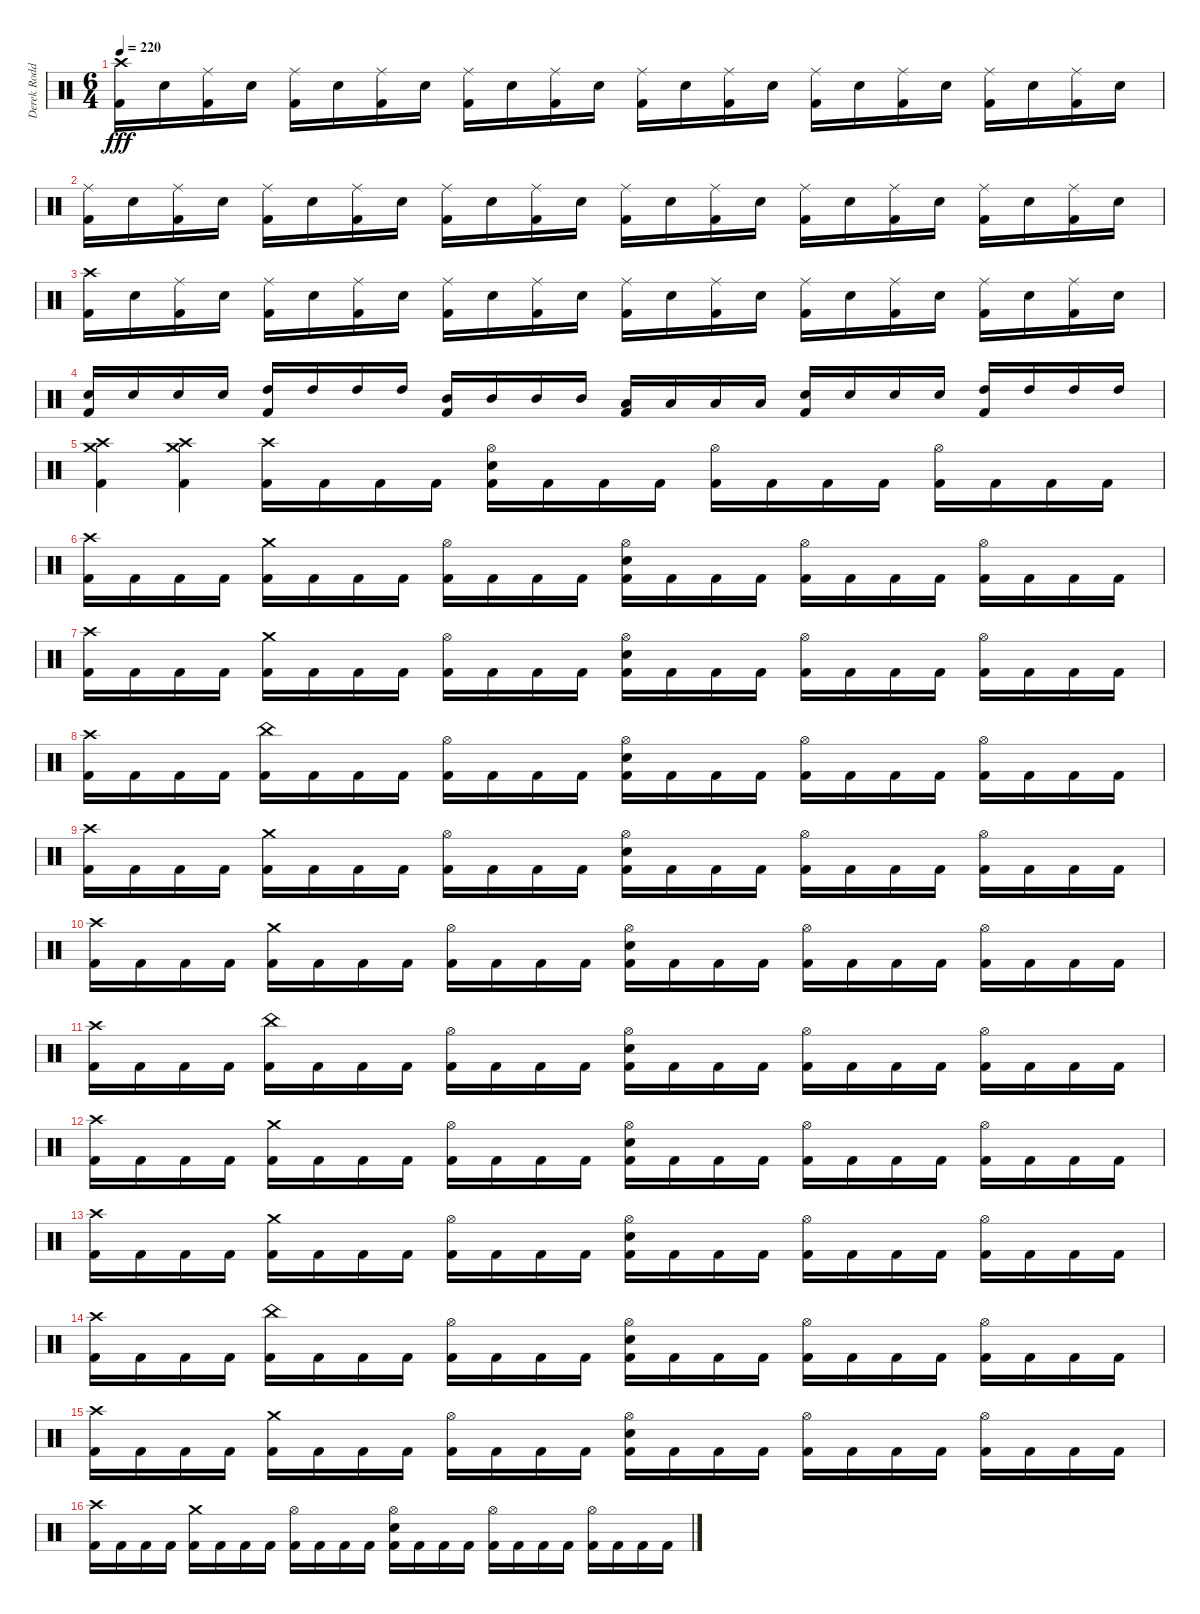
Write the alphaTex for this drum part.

\track ("Derek Roddy" "Derek Rodd") {instrument percussion}
\staff {score}
\articulation defaults
\ts (6 4)
\tempo 220
\clef neutral
\ks c
("Crash high (hit)" "Kick (hit) 2").16{dy fff} "Snare (hit) 2".16 ("Ride (middle)" "Kick (hit) 2").16 "Snare (hit) 2".16 ("Ride (middle)" "Kick (hit) 2").16 "Snare (hit) 2".16 ("Ride (middle)" "Kick (hit) 2").16 "Snare (hit) 2".16 ("Ride (middle)" "Kick (hit) 2").16 "Snare (hit) 2".16 ("Ride (middle)" "Kick (hit) 2").16 "Snare (hit) 2".16 ("Ride (middle)" "Kick (hit) 2").16 "Snare (hit) 2".16 ("Ride (middle)" "Kick (hit) 2").16 "Snare (hit) 2".16 ("Ride (middle)" "Kick (hit) 2").16 "Snare (hit) 2".16 ("Ride (middle)" "Kick (hit) 2").16 "Snare (hit) 2".16 ("Ride (middle)" "Kick (hit) 2").16 "Snare (hit) 2".16 ("Ride (middle)" "Kick (hit) 2").16 "Snare (hit) 2".16 |
("Ride (middle)" "Kick (hit) 2").16 "Snare (hit) 2".16 ("Ride (middle)" "Kick (hit) 2").16 "Snare (hit) 2".16 ("Ride (middle)" "Kick (hit) 2").16 "Snare (hit) 2".16 ("Ride (middle)" "Kick (hit) 2").16 "Snare (hit) 2".16 ("Ride (middle)" "Kick (hit) 2").16 "Snare (hit) 2".16 ("Ride (middle)" "Kick (hit) 2").16 "Snare (hit) 2".16 ("Ride (middle)" "Kick (hit) 2").16 "Snare (hit) 2".16 ("Ride (middle)" "Kick (hit) 2").16 "Snare (hit) 2".16 ("Ride (middle)" "Kick (hit) 2").16 "Snare (hit) 2".16 ("Ride (middle)" "Kick (hit) 2").16 "Snare (hit) 2".16 ("Ride (middle)" "Kick (hit) 2").16 "Snare (hit) 2".16 ("Ride (middle)" "Kick (hit) 2").16 "Snare (hit) 2".16 |
("Crash high (hit)" "Kick (hit) 2").16 "Snare (hit) 2".16 ("Ride (middle)" "Kick (hit) 2").16 "Snare (hit) 2".16 ("Ride (middle)" "Kick (hit) 2").16 "Snare (hit) 2".16 ("Ride (middle)" "Kick (hit) 2").16 "Snare (hit) 2".16 ("Ride (middle)" "Kick (hit) 2").16 "Snare (hit) 2".16 ("Ride (middle)" "Kick (hit) 2").16 "Snare (hit) 2".16 ("Ride (middle)" "Kick (hit) 2").16 "Snare (hit) 2".16 ("Ride (middle)" "Kick (hit) 2").16 "Snare (hit) 2".16 ("Ride (middle)" "Kick (hit) 2").16 "Snare (hit) 2".16 ("Ride (middle)" "Kick (hit) 2").16 "Snare (hit) 2".16 ("Ride (middle)" "Kick (hit) 2").16 "Snare (hit) 2".16 ("Ride (middle)" "Kick (hit) 2").16 "Snare (hit) 2".16 |
("Snare (hit) 2" "Kick (hit) 2").16 "Snare (hit) 2".16 "Snare (hit) 2".16 "Snare (hit) 2".16 ("High Tom (hit)" "Kick (hit) 2").16 "High Tom (hit)".16 "High Tom (hit)".16 "High Tom (hit)".16 ("Mid Tom (hit)" "Kick (hit) 2").16 "Mid Tom (hit)".16 "Mid Tom (hit)".16 "Mid Tom (hit)".16 ("Low Tom (hit)" "Kick (hit) 2").16 "Low Tom (hit)".16 "Low Tom (hit)".16 "Low Tom (hit)".16 ("Snare (hit) 2" "Kick (hit) 2").16 "Snare (hit) 2".16 "Snare (hit) 2".16 "Snare (hit) 2".16 ("High Tom (hit)" "Kick (hit) 2").16 "High Tom (hit)".16 "High Tom (hit)".16 "High Tom (hit)".16 |
("Crash high (hit)" "Crash medium (hit)" "Kick (hit) 2").4 ("Crash high (hit)" "Crash medium (hit)" "Kick (hit) 2").4 ("Crash high (hit)" "Kick (hit) 2").16 "Kick (hit) 2".16 "Kick (hit) 2".16 "Kick (hit) 2".16 ("Hi-Hat (open)" "Snare (hit) 2" "Kick (hit) 2").16 "Kick (hit) 2".16 "Kick (hit) 2".16 "Kick (hit) 2".16 ("Hi-Hat (open)" "Kick (hit) 2").16 "Kick (hit) 2".16 "Kick (hit) 2".16 "Kick (hit) 2".16 ("Hi-Hat (open)" "Kick (hit) 2").16 "Kick (hit) 2".16 "Kick (hit) 2".16 "Kick (hit) 2".16 |
("Crash high (hit)" "Kick (hit) 2").16 "Kick (hit) 2".16 "Kick (hit) 2".16 "Kick (hit) 2".16 ("Crash medium (hit)" "Kick (hit) 2").16 "Kick (hit) 2".16 "Kick (hit) 2".16 "Kick (hit) 2".16 ("Hi-Hat (open)" "Kick (hit) 2").16 "Kick (hit) 2".16 "Kick (hit) 2".16 "Kick (hit) 2".16 ("Hi-Hat (open)" "Snare (hit) 2" "Kick (hit) 2").16 "Kick (hit) 2".16 "Kick (hit) 2".16 "Kick (hit) 2".16 ("Hi-Hat (open)" "Kick (hit) 2").16 "Kick (hit) 2".16 "Kick (hit) 2".16 "Kick (hit) 2".16 ("Hi-Hat (open)" "Kick (hit) 2").16 "Kick (hit) 2".16 "Kick (hit) 2".16 "Kick (hit) 2".16 |
("Crash high (hit)" "Kick (hit) 2").16 "Kick (hit) 2".16 "Kick (hit) 2".16 "Kick (hit) 2".16 ("Crash medium (hit)" "Kick (hit) 2").16 "Kick (hit) 2".16 "Kick (hit) 2".16 "Kick (hit) 2".16 ("Hi-Hat (open)" "Kick (hit) 2").16 "Kick (hit) 2".16 "Kick (hit) 2".16 "Kick (hit) 2".16 ("Hi-Hat (open)" "Snare (hit) 2" "Kick (hit) 2").16 "Kick (hit) 2".16 "Kick (hit) 2".16 "Kick (hit) 2".16 ("Hi-Hat (open)" "Kick (hit) 2").16 "Kick (hit) 2".16 "Kick (hit) 2".16 "Kick (hit) 2".16 ("Hi-Hat (open)" "Kick (hit) 2").16 "Kick (hit) 2".16 "Kick (hit) 2".16 "Kick (hit) 2".16 |
("Crash high (hit)" "Kick (hit) 2").16 "Kick (hit) 2".16 "Kick (hit) 2".16 "Kick (hit) 2".16 ("China (hit)" "Kick (hit) 2").16 "Kick (hit) 2".16 "Kick (hit) 2".16 "Kick (hit) 2".16 ("Hi-Hat (open)" "Kick (hit) 2").16 "Kick (hit) 2".16 "Kick (hit) 2".16 "Kick (hit) 2".16 ("Hi-Hat (open)" "Snare (hit) 2" "Kick (hit) 2").16 "Kick (hit) 2".16 "Kick (hit) 2".16 "Kick (hit) 2".16 ("Hi-Hat (open)" "Kick (hit) 2").16 "Kick (hit) 2".16 "Kick (hit) 2".16 "Kick (hit) 2".16 ("Hi-Hat (open)" "Kick (hit) 2").16 "Kick (hit) 2".16 "Kick (hit) 2".16 "Kick (hit) 2".16 |
("Crash high (hit)" "Kick (hit) 2").16 "Kick (hit) 2".16 "Kick (hit) 2".16 "Kick (hit) 2".16 ("Crash medium (hit)" "Kick (hit) 2").16 "Kick (hit) 2".16 "Kick (hit) 2".16 "Kick (hit) 2".16 ("Hi-Hat (open)" "Kick (hit) 2").16 "Kick (hit) 2".16 "Kick (hit) 2".16 "Kick (hit) 2".16 ("Hi-Hat (open)" "Snare (hit) 2" "Kick (hit) 2").16 "Kick (hit) 2".16 "Kick (hit) 2".16 "Kick (hit) 2".16 ("Hi-Hat (open)" "Kick (hit) 2").16 "Kick (hit) 2".16 "Kick (hit) 2".16 "Kick (hit) 2".16 ("Hi-Hat (open)" "Kick (hit) 2").16 "Kick (hit) 2".16 "Kick (hit) 2".16 "Kick (hit) 2".16 |
("Crash high (hit)" "Kick (hit) 2").16 "Kick (hit) 2".16 "Kick (hit) 2".16 "Kick (hit) 2".16 ("Crash medium (hit)" "Kick (hit) 2").16 "Kick (hit) 2".16 "Kick (hit) 2".16 "Kick (hit) 2".16 ("Hi-Hat (open)" "Kick (hit) 2").16 "Kick (hit) 2".16 "Kick (hit) 2".16 "Kick (hit) 2".16 ("Hi-Hat (open)" "Snare (hit) 2" "Kick (hit) 2").16 "Kick (hit) 2".16 "Kick (hit) 2".16 "Kick (hit) 2".16 ("Hi-Hat (open)" "Kick (hit) 2").16 "Kick (hit) 2".16 "Kick (hit) 2".16 "Kick (hit) 2".16 ("Hi-Hat (open)" "Kick (hit) 2").16 "Kick (hit) 2".16 "Kick (hit) 2".16 "Kick (hit) 2".16 |
("Crash high (hit)" "Kick (hit) 2").16 "Kick (hit) 2".16 "Kick (hit) 2".16 "Kick (hit) 2".16 ("China (hit)" "Kick (hit) 2").16 "Kick (hit) 2".16 "Kick (hit) 2".16 "Kick (hit) 2".16 ("Hi-Hat (open)" "Kick (hit) 2").16 "Kick (hit) 2".16 "Kick (hit) 2".16 "Kick (hit) 2".16 ("Hi-Hat (open)" "Snare (hit) 2" "Kick (hit) 2").16 "Kick (hit) 2".16 "Kick (hit) 2".16 "Kick (hit) 2".16 ("Hi-Hat (open)" "Kick (hit) 2").16 "Kick (hit) 2".16 "Kick (hit) 2".16 "Kick (hit) 2".16 ("Hi-Hat (open)" "Kick (hit) 2").16 "Kick (hit) 2".16 "Kick (hit) 2".16 "Kick (hit) 2".16 |
("Crash high (hit)" "Kick (hit) 2").16 "Kick (hit) 2".16 "Kick (hit) 2".16 "Kick (hit) 2".16 ("Crash medium (hit)" "Kick (hit) 2").16 "Kick (hit) 2".16 "Kick (hit) 2".16 "Kick (hit) 2".16 ("Hi-Hat (open)" "Kick (hit) 2").16 "Kick (hit) 2".16 "Kick (hit) 2".16 "Kick (hit) 2".16 ("Hi-Hat (open)" "Snare (hit) 2" "Kick (hit) 2").16 "Kick (hit) 2".16 "Kick (hit) 2".16 "Kick (hit) 2".16 ("Hi-Hat (open)" "Kick (hit) 2").16 "Kick (hit) 2".16 "Kick (hit) 2".16 "Kick (hit) 2".16 ("Hi-Hat (open)" "Kick (hit) 2").16 "Kick (hit) 2".16 "Kick (hit) 2".16 "Kick (hit) 2".16 |
("Crash high (hit)" "Kick (hit) 2").16 "Kick (hit) 2".16 "Kick (hit) 2".16 "Kick (hit) 2".16 ("Crash medium (hit)" "Kick (hit) 2").16 "Kick (hit) 2".16 "Kick (hit) 2".16 "Kick (hit) 2".16 ("Hi-Hat (open)" "Kick (hit) 2").16 "Kick (hit) 2".16 "Kick (hit) 2".16 "Kick (hit) 2".16 ("Hi-Hat (open)" "Snare (hit) 2" "Kick (hit) 2").16 "Kick (hit) 2".16 "Kick (hit) 2".16 "Kick (hit) 2".16 ("Hi-Hat (open)" "Kick (hit) 2").16 "Kick (hit) 2".16 "Kick (hit) 2".16 "Kick (hit) 2".16 ("Hi-Hat (open)" "Kick (hit) 2").16 "Kick (hit) 2".16 "Kick (hit) 2".16 "Kick (hit) 2".16 |
("Crash high (hit)" "Kick (hit) 2").16 "Kick (hit) 2".16 "Kick (hit) 2".16 "Kick (hit) 2".16 ("China (hit)" "Kick (hit) 2").16 "Kick (hit) 2".16 "Kick (hit) 2".16 "Kick (hit) 2".16 ("Hi-Hat (open)" "Kick (hit) 2").16 "Kick (hit) 2".16 "Kick (hit) 2".16 "Kick (hit) 2".16 ("Hi-Hat (open)" "Snare (hit) 2" "Kick (hit) 2").16 "Kick (hit) 2".16 "Kick (hit) 2".16 "Kick (hit) 2".16 ("Hi-Hat (open)" "Kick (hit) 2").16 "Kick (hit) 2".16 "Kick (hit) 2".16 "Kick (hit) 2".16 ("Hi-Hat (open)" "Kick (hit) 2").16 "Kick (hit) 2".16 "Kick (hit) 2".16 "Kick (hit) 2".16 |
("Crash high (hit)" "Kick (hit) 2").16 "Kick (hit) 2".16 "Kick (hit) 2".16 "Kick (hit) 2".16 ("Crash medium (hit)" "Kick (hit) 2").16 "Kick (hit) 2".16 "Kick (hit) 2".16 "Kick (hit) 2".16 ("Hi-Hat (open)" "Kick (hit) 2").16 "Kick (hit) 2".16 "Kick (hit) 2".16 "Kick (hit) 2".16 ("Hi-Hat (open)" "Snare (hit) 2" "Kick (hit) 2").16 "Kick (hit) 2".16 "Kick (hit) 2".16 "Kick (hit) 2".16 ("Hi-Hat (open)" "Kick (hit) 2").16 "Kick (hit) 2".16 "Kick (hit) 2".16 "Kick (hit) 2".16 ("Hi-Hat (open)" "Kick (hit) 2").16 "Kick (hit) 2".16 "Kick (hit) 2".16 "Kick (hit) 2".16 |
("Crash high (hit)" "Kick (hit) 2").16 "Kick (hit) 2".16 "Kick (hit) 2".16 "Kick (hit) 2".16 ("Crash medium (hit)" "Kick (hit) 2").16 "Kick (hit) 2".16 "Kick (hit) 2".16 "Kick (hit) 2".16 ("Hi-Hat (open)" "Kick (hit) 2").16 "Kick (hit) 2".16 "Kick (hit) 2".16 "Kick (hit) 2".16 ("Hi-Hat (open)" "Snare (hit) 2" "Kick (hit) 2").16 "Kick (hit) 2".16 "Kick (hit) 2".16 "Kick (hit) 2".16 ("Hi-Hat (open)" "Kick (hit) 2").16 "Kick (hit) 2".16 "Kick (hit) 2".16 "Kick (hit) 2".16 ("Hi-Hat (open)" "Kick (hit) 2").16 "Kick (hit) 2".16 "Kick (hit) 2".16 "Kick (hit) 2".16
